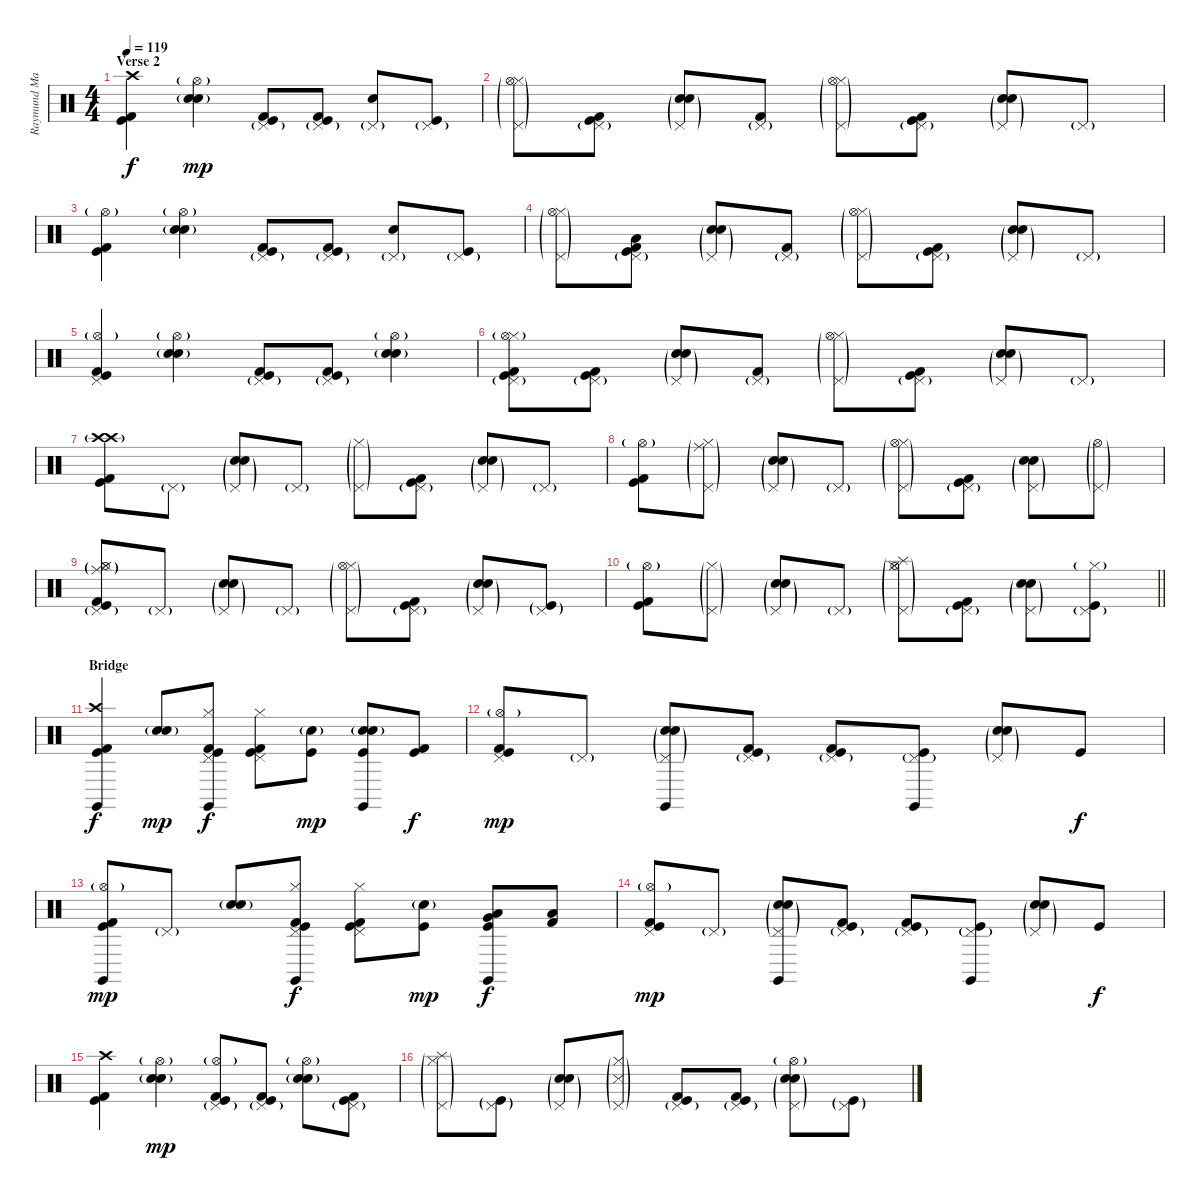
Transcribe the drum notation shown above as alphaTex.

\track ("Raymund Marasigan(Drums)" "Raymund Ma") {instrument percussion}
\staff {score}
\articulation defaults
\ts (4 4)
\section ("" "Verse 2")
\tempo 119
\clef neutral
\ks c
("Crash high (hit)" "Kick (hit) 2" "Kick (hit)").4{dy f} ("Hi-Hat (open)"{g} "Electric Snare (hit)" "Snare (hit) 2"{g}).4{dy mp} ("Pedal Hi-Hat (hit)"{g} "Kick (hit) 2" "Kick (hit)").8 ("Pedal Hi-Hat (hit)"{g} "Kick (hit) 2" "Kick (hit)").8 ("Pedal Hi-Hat (hit)"{g} "Electric Snare (hit)").8 ("Pedal Hi-Hat (hit)"{g} "Kick (hit)").8 |
("Pedal Hi-Hat (hit)"{g} "Hi-Hat (closed)"{g} "Hi-Hat (open)"{g}).8 ("Pedal Hi-Hat (hit)"{g} "Kick (hit) 2" "Kick (hit)").8 ("Pedal Hi-Hat (hit)"{g} "Electric Snare (hit)" "Snare (hit) 2"{g}).8 ("Pedal Hi-Hat (hit)"{g} "Kick (hit) 2").8 ("Pedal Hi-Hat (hit)"{g} "Hi-Hat (closed)"{g} "Hi-Hat (open)"{g}).8 ("Pedal Hi-Hat (hit)"{g} "Kick (hit) 2" "Kick (hit)").8 ("Pedal Hi-Hat (hit)"{g} "Electric Snare (hit)" "Snare (hit) 2"{g}).8 "Pedal Hi-Hat (hit)"{g}.8 |
("Hi-Hat (open)"{g} "Kick (hit) 2" "Kick (hit)").4 ("Hi-Hat (open)"{g} "Electric Snare (hit)" "Snare (hit) 2"{g}).4 ("Pedal Hi-Hat (hit)"{g} "Kick (hit) 2" "Kick (hit)").8 ("Pedal Hi-Hat (hit)"{g} "Kick (hit) 2" "Kick (hit)").8 ("Pedal Hi-Hat (hit)"{g} "Electric Snare (hit)").8 ("Pedal Hi-Hat (hit)"{g} "Kick (hit)").8 |
("Pedal Hi-Hat (hit)"{g} "Hi-Hat (closed)"{g} "Hi-Hat (open)"{g}).8 ("Pedal Hi-Hat (hit)"{g} "Kick (hit) 2" "Kick (hit)" "Low Tom (hit)").8 ("Pedal Hi-Hat (hit)"{g} "Electric Snare (hit)" "Snare (hit) 2"{g}).8 ("Pedal Hi-Hat (hit)"{g} "Kick (hit) 2").8 ("Pedal Hi-Hat (hit)"{g} "Hi-Hat (closed)"{g} "Hi-Hat (open)"{g}).8 ("Pedal Hi-Hat (hit)"{g} "Kick (hit) 2" "Kick (hit)").8 ("Pedal Hi-Hat (hit)"{g} "Electric Snare (hit)" "Snare (hit) 2"{g}).8 "Pedal Hi-Hat (hit)"{g}.8 |
("Pedal Hi-Hat (hit)" "Hi-Hat (open)"{g} "Kick (hit) 2" "Kick (hit)").4 ("Hi-Hat (open)"{g} "Electric Snare (hit)" "Snare (hit) 2"{g}).4 ("Pedal Hi-Hat (hit)"{g} "Kick (hit) 2" "Kick (hit)").8 ("Pedal Hi-Hat (hit)"{g} "Kick (hit) 2" "Kick (hit)").8 ("Hi-Hat (open)"{g} "Electric Snare (hit)" "Snare (hit) 2"{g}).4 |
("Pedal Hi-Hat (hit)"{g} "Hi-Hat (closed)"{g} "Hi-Hat (open)"{g} "Kick (hit) 2" "Kick (hit)").8 ("Pedal Hi-Hat (hit)"{g} "Kick (hit) 2" "Kick (hit)").8 ("Pedal Hi-Hat (hit)"{g} "Electric Snare (hit)" "Snare (hit) 2"{g}).8 ("Pedal Hi-Hat (hit)"{g} "Kick (hit) 2").8 ("Pedal Hi-Hat (hit)"{g} "Hi-Hat (closed)"{g} "Hi-Hat (open)"{g}).8 ("Pedal Hi-Hat (hit)"{g} "Kick (hit) 2" "Kick (hit)").8 ("Pedal Hi-Hat (hit)"{g} "Electric Snare (hit)" "Snare (hit) 2"{g}).8 "Pedal Hi-Hat (hit)"{g}.8 |
("Kick (hit) 2" "Kick (hit)" "Crash high (hit)"{g} "Crash high (hit)"{g}).8 "Pedal Hi-Hat (hit)"{g}.8 ("Pedal Hi-Hat (hit)"{g} "Electric Snare (hit)" "Snare (hit) 2"{g}).8 "Pedal Hi-Hat (hit)"{g}.8 ("Pedal Hi-Hat (hit)"{g} "Hi-Hat (closed)"{g}).8 ("Pedal Hi-Hat (hit)"{g} "Kick (hit) 2" "Kick (hit)").8 ("Pedal Hi-Hat (hit)"{g} "Electric Snare (hit)" "Snare (hit) 2"{g}).8 "Pedal Hi-Hat (hit)"{g}.8 |
("Kick (hit) 2" "Kick (hit)" "Hi-Hat (open)"{g}).8 ("Pedal Hi-Hat (hit)"{g} "Hi-Hat (closed)"{g} "Ride (middle)"{g}).8 ("Pedal Hi-Hat (hit)"{g} "Electric Snare (hit)" "Snare (hit) 2"{g}).8 "Pedal Hi-Hat (hit)"{g}.8 ("Pedal Hi-Hat (hit)"{g} "Hi-Hat (closed)"{g} "Hi-Hat (open)"{g}).8 ("Pedal Hi-Hat (hit)"{g} "Kick (hit) 2" "Kick (hit)").8 ("Pedal Hi-Hat (hit)"{g} "Electric Snare (hit)" "Snare (hit) 2"{g}).8 ("Pedal Hi-Hat (hit)"{g} "Hi-Hat (open)"{g}).8 |
("Kick (hit) 2" "Kick (hit)" "Hi-Hat (open)"{g} "Ride (middle)"{g} "Pedal Hi-Hat (hit)"{g} "Hi-Hat (closed)"{g}).8 "Pedal Hi-Hat (hit)"{g}.8 ("Pedal Hi-Hat (hit)"{g} "Electric Snare (hit)" "Snare (hit) 2"{g}).8 "Pedal Hi-Hat (hit)"{g}.8 ("Pedal Hi-Hat (hit)"{g} "Hi-Hat (closed)"{g} "Hi-Hat (open)"{g}).8 ("Pedal Hi-Hat (hit)"{g} "Kick (hit) 2" "Kick (hit)").8 ("Pedal Hi-Hat (hit)"{g} "Electric Snare (hit)" "Snare (hit) 2"{g}).8 ("Pedal Hi-Hat (hit)"{g} "Kick (hit)"{g}).8 |
\barLineRight lightlight
("Kick (hit) 2" "Kick (hit)" "Hi-Hat (open)"{g}).8 ("Pedal Hi-Hat (hit)"{g} "Hi-Hat (closed)"{g}).8 ("Pedal Hi-Hat (hit)"{g} "Electric Snare (hit)" "Snare (hit) 2"{g}).8 "Pedal Hi-Hat (hit)"{g}.8 ("Pedal Hi-Hat (hit)"{g} "Hi-Hat (closed)"{g} "Hi-Hat (open)"{g} "Splash (hit)"{g}).8 ("Pedal Hi-Hat (hit)"{g} "Kick (hit) 2" "Kick (hit)").8 ("Pedal Hi-Hat (hit)"{g} "Electric Snare (hit)" "Snare (hit) 2"{g}).8 ("Pedal Hi-Hat (hit)"{g} "Hi-Hat (closed)"{g} "Kick (hit)").8 |
\section ("" "Bridge")
("Crash high (hit)" "Kick (hit) 2" "Kick (hit)" "Claves (hit)").4{dy f} ("Electric Snare (hit)" "Snare (hit) 2"{g}).8{dy mp} ("Pedal Hi-Hat (hit)" "Hi-Hat (closed)" "Kick (hit) 2" "Kick (hit)" "Claves (hit)").8{dy f} ("Pedal Hi-Hat (hit)" "Hi-Hat (closed)" "Kick (hit) 2" "Kick (hit)").8 ("Kick (hit)" "Electric Snare (hit)"{g}).8{dy mp} ("Kick (hit)" "Electric Snare (hit)" "Snare (hit) 2"{g} "Claves (hit)").8 ("Kick (hit) 2" "Kick (hit)").8{dy f} |
("Pedal Hi-Hat (hit)" "Kick (hit) 2" "Kick (hit)" "Hi-Hat (open)"{g}).8{dy mp} "Pedal Hi-Hat (hit)"{g}.8 ("Pedal Hi-Hat (hit)"{g} "Electric Snare (hit)" "Snare (hit) 2"{g} "Claves (hit)").8 ("Pedal Hi-Hat (hit)"{g} "Kick (hit) 2" "Kick (hit)").8 ("Pedal Hi-Hat (hit)"{g} "Kick (hit) 2" "Kick (hit)").8 ("Pedal Hi-Hat (hit)"{g} "Kick (hit)" "Claves (hit)").8 ("Pedal Hi-Hat (hit)"{g} "Electric Snare (hit)" "Snare (hit) 2"{g}).8 "Kick (hit)".8{dy f} |
("Hi-Hat (open)"{g} "Kick (hit) 2" "Kick (hit)" "Claves (hit)").8{dy mp} "Pedal Hi-Hat (hit)"{g}.8 ("Electric Snare (hit)" "Snare (hit) 2"{g}).8 ("Pedal Hi-Hat (hit)" "Hi-Hat (closed)" "Kick (hit) 2" "Kick (hit)" "Claves (hit)").8{dy f} ("Pedal Hi-Hat (hit)" "Hi-Hat (closed)" "Kick (hit) 2" "Kick (hit)").8 ("Kick (hit)" "Electric Snare (hit)"{g}).8{dy mp} ("Kick (hit)" "Low Tom (hit)" "Very Low Tom (hit)" "Claves (hit)").8{dy f} ("Kick (hit) 2" "Low Floor Tom (hit)").8 |
("Pedal Hi-Hat (hit)" "Kick (hit) 2" "Kick (hit)" "Hi-Hat (open)"{g}).8{dy mp} "Pedal Hi-Hat (hit)"{g}.8 ("Pedal Hi-Hat (hit)"{g} "Electric Snare (hit)" "Snare (hit) 2"{g} "Claves (hit)").8 ("Pedal Hi-Hat (hit)"{g} "Kick (hit) 2" "Kick (hit)").8 ("Pedal Hi-Hat (hit)"{g} "Kick (hit) 2" "Kick (hit)").8 ("Pedal Hi-Hat (hit)"{g} "Kick (hit)" "Claves (hit)").8 ("Pedal Hi-Hat (hit)"{g} "Electric Snare (hit)" "Snare (hit) 2"{g}).8 "Kick (hit)".8{dy f} |
("Crash high (hit)" "Kick (hit) 2" "Kick (hit)").4 ("Electric Snare (hit)" "Snare (hit) 2"{g} "Hi-Hat (open)"{g}).4{dy mp} ("Pedal Hi-Hat (hit)"{g} "Kick (hit) 2" "Kick (hit)" "Hi-Hat (open)"{g}).8 ("Pedal Hi-Hat (hit)"{g} "Kick (hit) 2" "Kick (hit)").8 ("Electric Snare (hit)" "Snare (hit) 2"{g} "Hi-Hat (open)"{g}).8 ("Pedal Hi-Hat (hit)"{g} "Kick (hit) 2" "Kick (hit)").8 |
("Pedal Hi-Hat (hit)"{g} "Hi-Hat (closed)"{g} "Splash (hit)"{g}).8 ("Pedal Hi-Hat (hit)"{g} "Kick (hit)"{g}).8 ("Pedal Hi-Hat (hit)"{g} "Electric Snare (hit)" "Snare (hit) 2"{g}).8 ("Pedal Hi-Hat (hit)"{g} "Hi-Hat (closed)"{g} "Snare (side stick) 3"{g}).8 ("Pedal Hi-Hat (hit)"{g} "Kick (hit) 2" "Kick (hit)").8 ("Pedal Hi-Hat (hit)"{g} "Kick (hit) 2" "Kick (hit)").8 ("Pedal Hi-Hat (hit)"{g} "Electric Snare (hit)" "Snare (hit) 2"{g} "Hi-Hat (open)"{g}).8 ("Pedal Hi-Hat (hit)"{g} "Kick (hit)"{g}).8
